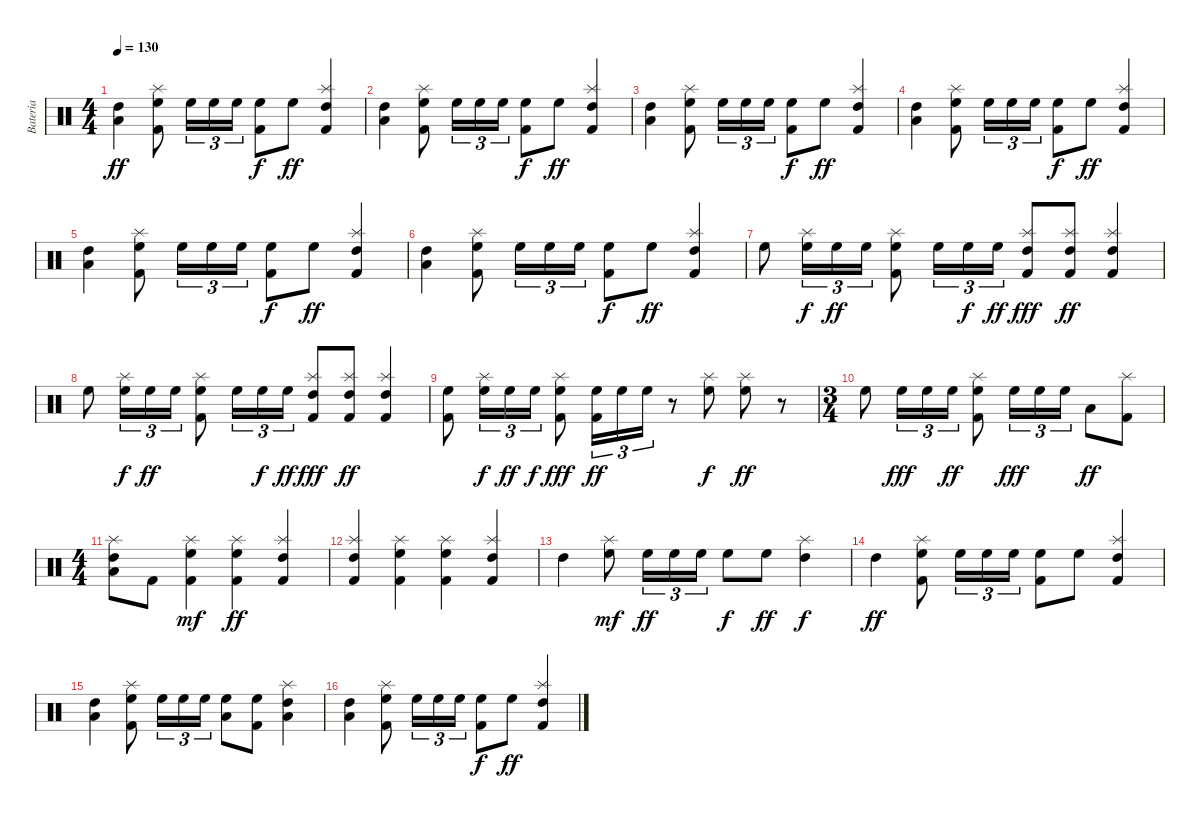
\track ("Bateria" "Bateria") {instrument percussion}
\staff {score}
\articulation defaults
\ts (4 4)
\tempo 130
\clef neutral
\ks c
("High Tom (hit)" "Low Floor Tom (hit)").4{dy ff} ("High Floor Tom (hit)" "Splash (hit)" "Kick (hit) 2").8 "High Floor Tom (hit)".16{tu (3 2)} "High Floor Tom (hit)".16{tu (3 2)} "High Floor Tom (hit)".16{tu (3 2)} ("High Floor Tom (hit)" "Kick (hit) 2").8{dy f} "High Floor Tom (hit)".8{dy ff} ("High Tom (hit)" "Splash (hit)" "Kick (hit) 2").4 |
("High Tom (hit)" "Low Floor Tom (hit)").4 ("High Floor Tom (hit)" "Splash (hit)" "Kick (hit) 2").8 "High Floor Tom (hit)".16{tu (3 2)} "High Floor Tom (hit)".16{tu (3 2)} "High Floor Tom (hit)".16{tu (3 2)} ("High Floor Tom (hit)" "Kick (hit) 2").8{dy f} "High Floor Tom (hit)".8{dy ff} ("High Tom (hit)" "Splash (hit)" "Kick (hit) 2").4 |
("High Tom (hit)" "Low Floor Tom (hit)").4 ("High Floor Tom (hit)" "Splash (hit)" "Kick (hit) 2").8 "High Floor Tom (hit)".16{tu (3 2)} "High Floor Tom (hit)".16{tu (3 2)} "High Floor Tom (hit)".16{tu (3 2)} ("High Floor Tom (hit)" "Kick (hit) 2").8{dy f} "High Floor Tom (hit)".8{dy ff} ("High Tom (hit)" "Splash (hit)" "Kick (hit) 2").4 |
("High Tom (hit)" "Low Floor Tom (hit)").4 ("High Floor Tom (hit)" "Splash (hit)" "Kick (hit) 2").8 "High Floor Tom (hit)".16{tu (3 2)} "High Floor Tom (hit)".16{tu (3 2)} "High Floor Tom (hit)".16{tu (3 2)} ("High Floor Tom (hit)" "Kick (hit) 2").8{dy f} "High Floor Tom (hit)".8{dy ff} ("High Tom (hit)" "Splash (hit)" "Kick (hit) 2").4 |
("High Tom (hit)" "Low Floor Tom (hit)").4 ("High Floor Tom (hit)" "Splash (hit)" "Kick (hit) 2").8 "High Floor Tom (hit)".16{tu (3 2)} "High Floor Tom (hit)".16{tu (3 2)} "High Floor Tom (hit)".16{tu (3 2)} ("High Floor Tom (hit)" "Kick (hit) 2").8{dy f} "High Floor Tom (hit)".8{dy ff} ("High Tom (hit)" "Splash (hit)" "Kick (hit) 2").4 |
("High Tom (hit)" "Low Floor Tom (hit)").4 ("High Floor Tom (hit)" "Splash (hit)" "Kick (hit) 2").8 "High Floor Tom (hit)".16{tu (3 2)} "High Floor Tom (hit)".16{tu (3 2)} "High Floor Tom (hit)".16{tu (3 2)} ("High Floor Tom (hit)" "Kick (hit) 2").8{dy f} "High Floor Tom (hit)".8{dy ff} ("High Tom (hit)" "Splash (hit)" "Kick (hit) 2").4 |
"High Floor Tom (hit)".8 ("Splash (hit)" "High Floor Tom (hit)").16{tu (3 2) dy f} "High Floor Tom (hit)".16{tu (3 2) dy ff} "High Floor Tom (hit)".16{tu (3 2)} ("Kick (hit) 2" "High Floor Tom (hit)" "Splash (hit)").8 "High Floor Tom (hit)".16{tu (3 2)} "High Floor Tom (hit)".16{tu (3 2) dy f} "High Floor Tom (hit)".16{tu (3 2) dy ff} ("Kick (hit) 2" "Splash (hit)" "High Tom (hit)").8{dy fff} ("Kick (hit) 2" "High Tom (hit)" "Splash (hit)").8{dy ff} ("Kick (hit) 2" "High Tom (hit)" "Splash (hit)").4 |
"High Floor Tom (hit)".8 ("Splash (hit)" "High Floor Tom (hit)").16{tu (3 2) dy f} "High Floor Tom (hit)".16{tu (3 2) dy ff} "High Floor Tom (hit)".16{tu (3 2)} ("Kick (hit) 2" "High Floor Tom (hit)" "Splash (hit)").8 "High Floor Tom (hit)".16{tu (3 2)} "High Floor Tom (hit)".16{tu (3 2) dy f} "High Floor Tom (hit)".16{tu (3 2) dy ff} ("Kick (hit) 2" "Splash (hit)" "High Tom (hit)").8{dy fff} ("Kick (hit) 2" "High Tom (hit)" "Splash (hit)").8{dy ff} ("Kick (hit) 2" "High Tom (hit)" "Splash (hit)").4 |
("Kick (hit) 2" "High Floor Tom (hit)").8 ("Splash (hit)" "High Floor Tom (hit)").16{tu (3 2) dy f} "High Floor Tom (hit)".16{tu (3 2) dy ff} "High Floor Tom (hit)".16{tu (3 2) dy f} ("Kick (hit) 2" "Splash (hit)" "High Floor Tom (hit)").8{dy fff} ("Kick (hit) 2" "High Floor Tom (hit)").16{tu (3 2) dy ff} "High Floor Tom (hit)".16{tu (3 2)} "High Floor Tom (hit)".16{tu (3 2)} r.8 ("Splash (hit)" "High Floor Tom (hit)").8{dy f} ("High Floor Tom (hit)" "Splash (hit)").8{dy ff} r.8 |
\ts (3 4)
"High Floor Tom (hit)".8 "High Floor Tom (hit)".16{tu (3 2) dy fff} "High Floor Tom (hit)".16{tu (3 2)} "High Floor Tom (hit)".16{tu (3 2) dy ff} ("Kick (hit) 2" "Splash (hit)" "High Floor Tom (hit)").8 "High Floor Tom (hit)".16{tu (3 2) dy fff} "High Floor Tom (hit)".16{tu (3 2)} "High Floor Tom (hit)".16{tu (3 2)} "Low Floor Tom (hit)".8{dy ff} ("Kick (hit) 2" "Splash (hit)").8 |
\ts (4 4)
("Low Floor Tom (hit)" "High Tom (hit)" "Splash (hit)").8 "Kick (hit) 2".8 ("Kick (hit) 2" "High Floor Tom (hit)" "Splash (hit)").4{dy mf} ("Kick (hit) 2" "High Floor Tom (hit)" "Splash (hit)").4{dy ff} ("Kick (hit) 2" "High Tom (hit)" "Splash (hit)").4 |
("Kick (hit) 2" "High Tom (hit)" "Splash (hit)").4 ("Kick (hit) 2" "High Floor Tom (hit)" "Splash (hit)").4 ("Kick (hit) 2" "High Floor Tom (hit)" "Splash (hit)").4 ("Kick (hit) 2" "High Tom (hit)" "Splash (hit)").4 |
"High Tom (hit)".4 ("High Floor Tom (hit)" "Splash (hit)").8{dy mf} "High Floor Tom (hit)".16{tu (3 2) dy ff} "High Floor Tom (hit)".16{tu (3 2)} "High Floor Tom (hit)".16{tu (3 2)} "High Floor Tom (hit)".8{dy f} "High Floor Tom (hit)".8{dy ff} ("High Tom (hit)" "Splash (hit)").4{dy f} |
"High Tom (hit)".4{dy ff} ("High Floor Tom (hit)" "Splash (hit)" "Kick (hit) 2").8 "High Floor Tom (hit)".16{tu (3 2)} "High Floor Tom (hit)".16{tu (3 2)} "High Floor Tom (hit)".16{tu (3 2)} ("High Floor Tom (hit)" "Kick (hit) 2").8 "High Floor Tom (hit)".8 ("High Tom (hit)" "Splash (hit)" "Kick (hit) 2").4 |
("High Tom (hit)" "Low Floor Tom (hit)").4 ("High Floor Tom (hit)" "Splash (hit)" "Kick (hit) 2").8 "High Floor Tom (hit)".16{tu (3 2)} "High Floor Tom (hit)".16{tu (3 2)} "High Floor Tom (hit)".16{tu (3 2)} ("High Floor Tom (hit)" "Low Floor Tom (hit)").8 ("High Floor Tom (hit)" "Kick (hit) 2").8 ("High Tom (hit)" "Splash (hit)" "Low Floor Tom (hit)").4 |
("High Tom (hit)" "Low Floor Tom (hit)").4 ("High Floor Tom (hit)" "Splash (hit)" "Kick (hit) 2").8 "High Floor Tom (hit)".16{tu (3 2)} "High Floor Tom (hit)".16{tu (3 2)} "High Floor Tom (hit)".16{tu (3 2)} ("High Floor Tom (hit)" "Kick (hit) 2").8{dy f} "High Floor Tom (hit)".8{dy ff} ("High Tom (hit)" "Splash (hit)" "Kick (hit) 2").4
